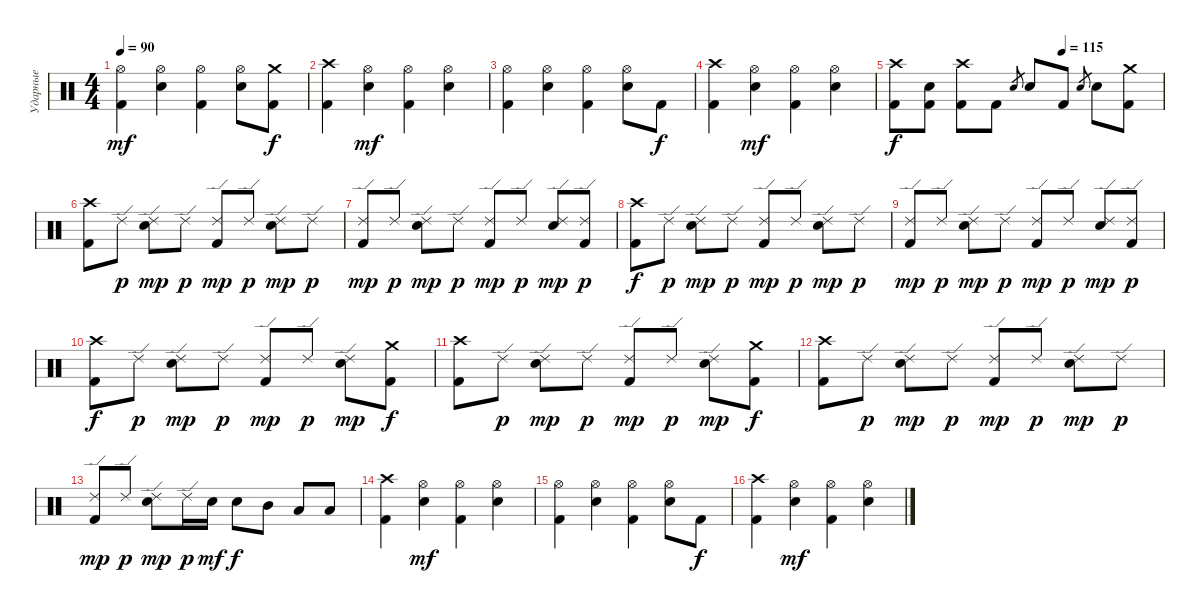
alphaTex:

\track ("Ударные" "Ударные") {instrument percussion}
\staff {score}
\articulation defaults
\ts (4 4)
\tempo 90
\clef neutral
\ks c
("Hi-Hat (open)" "Kick (hit) 2").4{dy mf} ("Hi-Hat (open)" "Electric Snare (hit)").4 ("Hi-Hat (open)" "Kick (hit) 2").4 ("Hi-Hat (open)" "Electric Snare (hit)").8 ("Crash medium (hit)" "Kick (hit) 2").8{dy f} |
("Crash high (hit)" "Kick (hit) 2").4 ("Hi-Hat (open)" "Electric Snare (hit)").4{dy mf} ("Hi-Hat (open)" "Kick (hit) 2").4 ("Hi-Hat (open)" "Electric Snare (hit)").4 |
("Hi-Hat (open)" "Kick (hit) 2").4 ("Hi-Hat (open)" "Electric Snare (hit)").4 ("Hi-Hat (open)" "Kick (hit) 2").4 ("Hi-Hat (open)" "Electric Snare (hit)").8 "Kick (hit) 2".8{dy f} |
("Crash high (hit)" "Kick (hit) 2").4 ("Hi-Hat (open)" "Electric Snare (hit)").4{dy mf} ("Hi-Hat (open)" "Kick (hit) 2").4 ("Hi-Hat (open)" "Electric Snare (hit)").4 |
\tempo (115 0.625)
("Crash high (hit)" "Kick (hit) 2").8{dy f} ("Kick (hit) 2" "Electric Snare (hit)").8 ("Kick (hit) 2" "Crash high (hit)").8 "Kick (hit) 2".8 "Electric Snare (hit)".8{gr} "Electric Snare (hit)".8 "Kick (hit) 2".8 "Electric Snare (hit)".8{gr} "Electric Snare (hit)".8 ("Crash medium (hit)" "Kick (hit) 2").8 |
("Crash high (hit)" "Kick (hit) 2").8 "Ride (edge) 2".8{dy p} ("Ride (edge) 2" "Electric Snare (hit)").8{dy mp} "Ride (edge) 2".8{dy p} ("Ride (edge) 2" "Kick (hit) 2").8{dy mp} "Ride (edge) 2".8{dy p} ("Ride (edge) 2" "Electric Snare (hit)").8{dy mp} "Ride (edge) 2".8{dy p} |
("Ride (edge) 2" "Kick (hit) 2").8{dy mp} "Ride (edge) 2".8{dy p} ("Ride (edge) 2" "Electric Snare (hit)").8{dy mp} "Ride (edge) 2".8{dy p} ("Ride (edge) 2" "Kick (hit) 2").8{dy mp} "Ride (edge) 2".8{dy p} ("Ride (edge) 2" "Electric Snare (hit)").8{dy mp} ("Ride (edge) 2" "Kick (hit) 2").8{dy p} |
("Crash high (hit)" "Kick (hit) 2").8{dy f} "Ride (edge) 2".8{dy p} ("Ride (edge) 2" "Electric Snare (hit)").8{dy mp} "Ride (edge) 2".8{dy p} ("Ride (edge) 2" "Kick (hit) 2").8{dy mp} "Ride (edge) 2".8{dy p} ("Ride (edge) 2" "Electric Snare (hit)").8{dy mp} "Ride (edge) 2".8{dy p} |
("Ride (edge) 2" "Kick (hit) 2").8{dy mp} "Ride (edge) 2".8{dy p} ("Ride (edge) 2" "Electric Snare (hit)").8{dy mp} "Ride (edge) 2".8{dy p} ("Ride (edge) 2" "Kick (hit) 2").8{dy mp} "Ride (edge) 2".8{dy p} ("Ride (edge) 2" "Electric Snare (hit)").8{dy mp} ("Ride (edge) 2" "Kick (hit) 2").8{dy p} |
("Crash high (hit)" "Kick (hit) 2").8{dy f} "Ride (edge) 2".8{dy p} ("Ride (edge) 2" "Electric Snare (hit)").8{dy mp} "Ride (edge) 2".8{dy p} ("Ride (edge) 2" "Kick (hit) 2").8{dy mp} "Ride (edge) 2".8{dy p} ("Ride (edge) 2" "Electric Snare (hit)").8{dy mp} ("Crash medium (hit)" "Kick (hit) 2").8{dy f} |
("Crash high (hit)" "Kick (hit) 2").8 "Ride (edge) 2".8{dy p} ("Ride (edge) 2" "Electric Snare (hit)").8{dy mp} "Ride (edge) 2".8{dy p} ("Ride (edge) 2" "Kick (hit) 2").8{dy mp} "Ride (edge) 2".8{dy p} ("Ride (edge) 2" "Electric Snare (hit)").8{dy mp} ("Crash medium (hit)" "Kick (hit) 2").8{dy f} |
("Crash high (hit)" "Kick (hit) 2").8 "Ride (edge) 2".8{dy p} ("Ride (edge) 2" "Electric Snare (hit)").8{dy mp} "Ride (edge) 2".8{dy p} ("Ride (edge) 2" "Kick (hit) 2").8{dy mp} "Ride (edge) 2".8{dy p} ("Ride (edge) 2" "Electric Snare (hit)").8{dy mp} "Ride (edge) 2".8{dy p} |
("Ride (edge) 2" "Kick (hit) 2").8{dy mp} "Ride (edge) 2".8{dy p} ("Ride (edge) 2" "Electric Snare (hit)").8{dy mp} "Ride (edge) 2".16{dy p} "Electric Snare (hit)".16{dy mf} "Electric Snare (hit)".8{dy f} "Mid Tom (hit)".8 "Low Tom (hit)".8 "Low Tom (hit)".8 |
("Crash high (hit)" "Kick (hit) 2").4 ("Hi-Hat (open)" "Electric Snare (hit)").4{dy mf} ("Hi-Hat (open)" "Kick (hit) 2").4 ("Hi-Hat (open)" "Electric Snare (hit)").4 |
("Hi-Hat (open)" "Kick (hit) 2").4 ("Hi-Hat (open)" "Electric Snare (hit)").4 ("Hi-Hat (open)" "Kick (hit) 2").4 ("Hi-Hat (open)" "Electric Snare (hit)").8 "Kick (hit) 2".8{dy f} |
("Crash high (hit)" "Kick (hit) 2").4 ("Hi-Hat (open)" "Electric Snare (hit)").4{dy mf} ("Hi-Hat (open)" "Kick (hit) 2").4 ("Hi-Hat (open)" "Electric Snare (hit)").4
